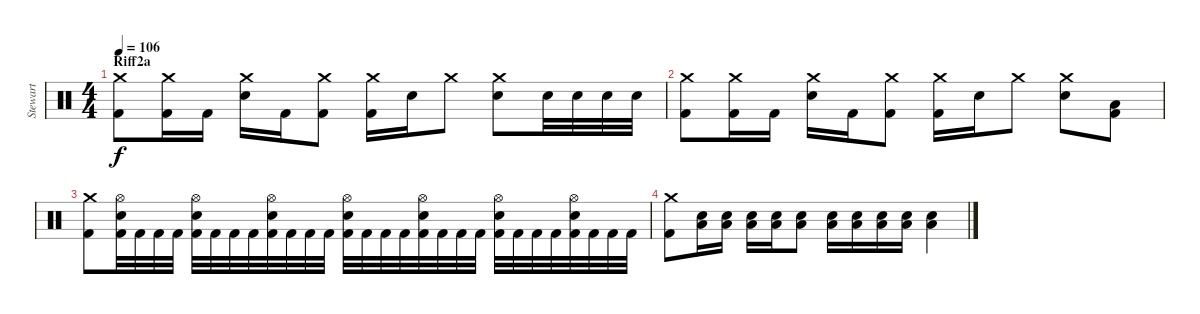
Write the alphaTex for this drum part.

\track ("Stewart" "Stewart") {instrument percussion}
\staff {score}
\articulation defaults
\ts (4 4)
\section ("" "Riff2a")
\tempo 106
\clef neutral
\ks c
("Crash medium (hit)" "Kick (hit) 2").8{dy f} ("Crash medium (hit)" "Kick (hit) 2").16 "Kick (hit) 2".16 ("Crash medium (hit)" "Electric Snare (hit)").16 "Kick (hit) 2".16 ("Crash medium (hit)" "Kick (hit) 2").8 ("Crash medium (hit)" "Kick (hit) 2").16 "Electric Snare (hit)".16 "Crash medium (hit)".8 ("Crash medium (hit)" "Electric Snare (hit)").8 "Electric Snare (hit)".32 "Electric Snare (hit)".32 "Electric Snare (hit)".32 "Electric Snare (hit)".32 |
("Crash medium (hit)" "Kick (hit) 2").8 ("Crash medium (hit)" "Kick (hit) 2").16 "Kick (hit) 2".16 ("Crash medium (hit)" "Electric Snare (hit)").16 "Kick (hit) 2".16 ("Crash medium (hit)" "Kick (hit) 2").8 ("Crash medium (hit)" "Kick (hit) 2").16 "Electric Snare (hit)".16 "Crash medium (hit)".8 ("Crash medium (hit)" "Electric Snare (hit)").8 ("Low Tom (hit)" "Kick (hit) 2").8 |
("Crash medium (hit)" "Kick (hit) 2").8 ("Hi-Hat (open)" "Electric Snare (hit)" "Kick (hit) 2").32 "Kick (hit) 2".32 "Kick (hit) 2".32 "Kick (hit) 2".32 ("Hi-Hat (open)" "Electric Snare (hit)" "Kick (hit) 2").32 "Kick (hit) 2".32 "Kick (hit) 2".32 "Kick (hit) 2".32 ("Hi-Hat (open)" "Electric Snare (hit)" "Kick (hit) 2").32 "Kick (hit) 2".32 "Kick (hit) 2".32 "Kick (hit) 2".32 ("Hi-Hat (open)" "Electric Snare (hit)" "Kick (hit) 2").32 "Kick (hit) 2".32 "Kick (hit) 2".32 "Kick (hit) 2".32 ("Hi-Hat (open)" "Electric Snare (hit)" "Kick (hit) 2").32 "Kick (hit) 2".32 "Kick (hit) 2".32 "Kick (hit) 2".32 ("Hi-Hat (open)" "Electric Snare (hit)" "Kick (hit) 2").32 "Kick (hit) 2".32 "Kick (hit) 2".32 "Kick (hit) 2".32 ("Hi-Hat (open)" "Electric Snare (hit)" "Kick (hit) 2").32 "Kick (hit) 2".32 "Kick (hit) 2".32 "Kick (hit) 2".32 |
("Crash medium (hit)" "Kick (hit) 2").8 ("Snare (hit) 2" "Low Tom (hit)").16 ("Snare (hit) 2" "Low Tom (hit)").16 ("Snare (hit) 2" "Low Tom (hit)").16 ("Snare (hit) 2" "Low Tom (hit)").16 ("Snare (hit) 2" "Low Tom (hit)").8 ("Snare (hit) 2" "Low Tom (hit)").16 ("Snare (hit) 2" "Low Tom (hit)").16 ("Snare (hit) 2" "Low Tom (hit)").16 ("Snare (hit) 2" "Low Tom (hit)").16 ("Snare (hit) 2" "Low Tom (hit)").4
